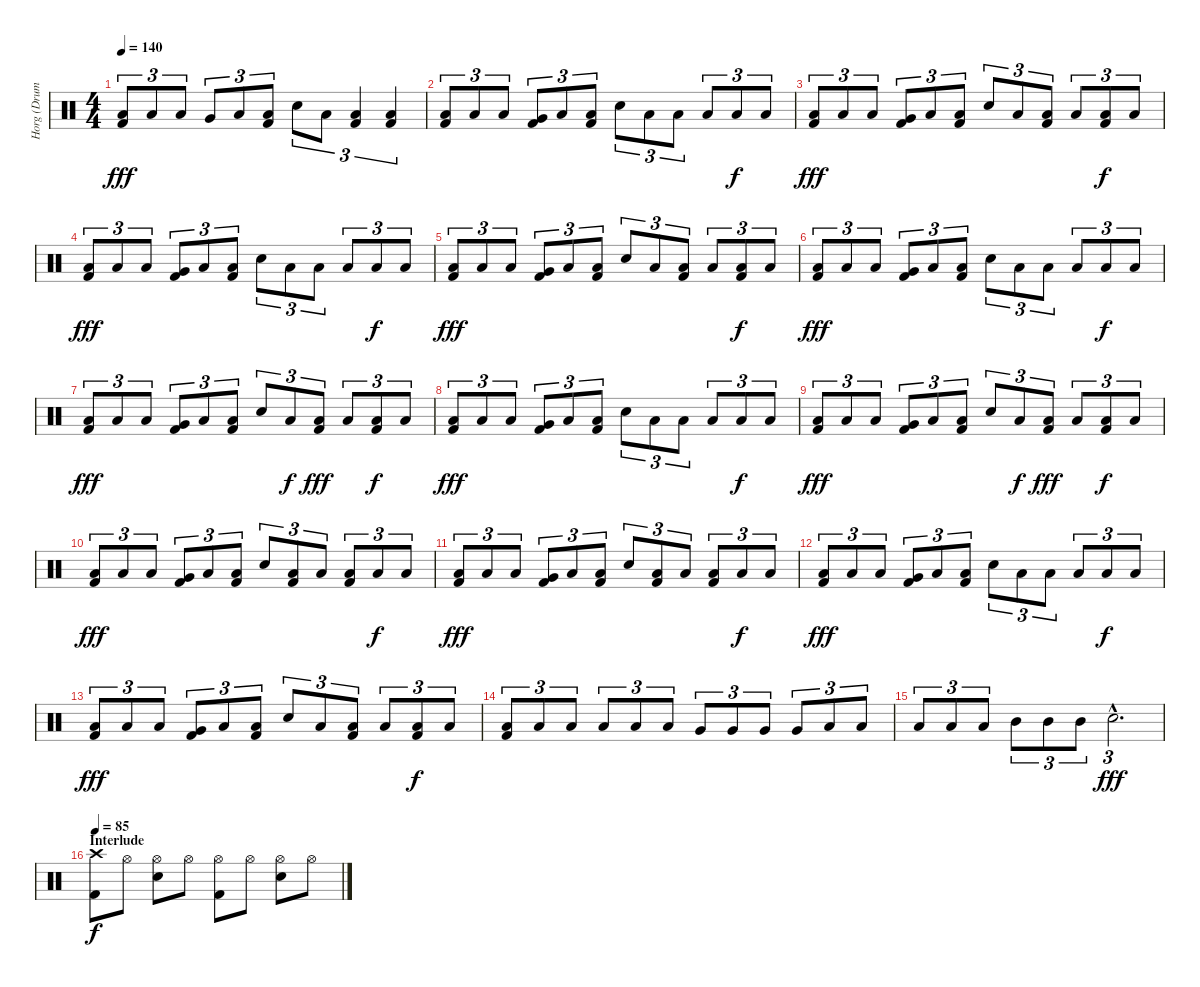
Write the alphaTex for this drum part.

\track ("Horg (Drums)" "Horg (Drum") {instrument percussion}
\staff {score}
\articulation defaults
\ts (4 4)
\tempo 140
\clef neutral
\ks c
("Low Floor Tom (hit)" "Kick (hit) 2").8{tu (3 2) dy fff} "Low Floor Tom (hit)".8{tu (3 2)} "Low Floor Tom (hit)".8{tu (3 2)} "Very Low Tom (hit)".8{tu (3 2)} "Low Floor Tom (hit)".8{tu (3 2)} ("Low Floor Tom (hit)" "Kick (hit) 2").8{tu (3 2)} "Electric Snare (hit)".8{tu (3 2)} "Low Floor Tom (hit)".8{tu (3 2)} ("Low Floor Tom (hit)" "Kick (hit) 2").4{tu (3 2)} ("Low Floor Tom (hit)" "Kick (hit) 2").4{tu (3 2)} |
("Low Floor Tom (hit)" "Kick (hit) 2").8{tu (3 2)} "Low Floor Tom (hit)".8{tu (3 2)} "Low Floor Tom (hit)".8{tu (3 2)} ("Very Low Tom (hit)" "Kick (hit) 2").8{tu (3 2)} "Low Floor Tom (hit)".8{tu (3 2)} ("Low Floor Tom (hit)" "Kick (hit) 2").8{tu (3 2)} "Electric Snare (hit)".8{tu (3 2)} "Low Floor Tom (hit)".8{tu (3 2)} "Low Floor Tom (hit)".8{tu (3 2)} "Low Floor Tom (hit)".8{tu (3 2)} "Low Floor Tom (hit)".8{tu (3 2) dy f} "Low Floor Tom (hit)".8{tu (3 2)} |
("Low Floor Tom (hit)" "Kick (hit) 2").8{tu (3 2) dy fff} "Low Floor Tom (hit)".8{tu (3 2)} "Low Floor Tom (hit)".8{tu (3 2)} ("Very Low Tom (hit)" "Kick (hit) 2").8{tu (3 2)} "Low Floor Tom (hit)".8{tu (3 2)} ("Low Floor Tom (hit)" "Kick (hit) 2").8{tu (3 2)} "Electric Snare (hit)".8{tu (3 2)} "Low Floor Tom (hit)".8{tu (3 2)} ("Low Floor Tom (hit)" "Kick (hit) 2").8{tu (3 2)} "Low Floor Tom (hit)".8{tu (3 2)} ("Low Floor Tom (hit)" "Kick (hit) 2").8{tu (3 2) dy f} "Low Floor Tom (hit)".8{tu (3 2)} |
("Low Floor Tom (hit)" "Kick (hit) 2").8{tu (3 2) dy fff} "Low Floor Tom (hit)".8{tu (3 2)} "Low Floor Tom (hit)".8{tu (3 2)} ("Very Low Tom (hit)" "Kick (hit) 2").8{tu (3 2)} "Low Floor Tom (hit)".8{tu (3 2)} ("Low Floor Tom (hit)" "Kick (hit) 2").8{tu (3 2)} "Electric Snare (hit)".8{tu (3 2)} "Low Floor Tom (hit)".8{tu (3 2)} "Low Floor Tom (hit)".8{tu (3 2)} "Low Floor Tom (hit)".8{tu (3 2)} "Low Floor Tom (hit)".8{tu (3 2) dy f} "Low Floor Tom (hit)".8{tu (3 2)} |
("Low Floor Tom (hit)" "Kick (hit) 2").8{tu (3 2) dy fff} "Low Floor Tom (hit)".8{tu (3 2)} "Low Floor Tom (hit)".8{tu (3 2)} ("Very Low Tom (hit)" "Kick (hit) 2").8{tu (3 2)} "Low Floor Tom (hit)".8{tu (3 2)} ("Low Floor Tom (hit)" "Kick (hit) 2").8{tu (3 2)} "Electric Snare (hit)".8{tu (3 2)} "Low Floor Tom (hit)".8{tu (3 2)} ("Low Floor Tom (hit)" "Kick (hit) 2").8{tu (3 2)} "Low Floor Tom (hit)".8{tu (3 2)} ("Low Floor Tom (hit)" "Kick (hit) 2").8{tu (3 2) dy f} "Low Floor Tom (hit)".8{tu (3 2)} |
("Low Floor Tom (hit)" "Kick (hit) 2").8{tu (3 2) dy fff} "Low Floor Tom (hit)".8{tu (3 2)} "Low Floor Tom (hit)".8{tu (3 2)} ("Very Low Tom (hit)" "Kick (hit) 2").8{tu (3 2)} "Low Floor Tom (hit)".8{tu (3 2)} ("Low Floor Tom (hit)" "Kick (hit) 2").8{tu (3 2)} "Electric Snare (hit)".8{tu (3 2)} "Low Floor Tom (hit)".8{tu (3 2)} "Low Floor Tom (hit)".8{tu (3 2)} "Low Floor Tom (hit)".8{tu (3 2)} "Low Floor Tom (hit)".8{tu (3 2) dy f} "Low Floor Tom (hit)".8{tu (3 2)} |
("Low Floor Tom (hit)" "Kick (hit) 2").8{tu (3 2) dy fff} "Low Floor Tom (hit)".8{tu (3 2)} "Low Floor Tom (hit)".8{tu (3 2)} ("Very Low Tom (hit)" "Kick (hit) 2").8{tu (3 2)} "Low Floor Tom (hit)".8{tu (3 2)} ("Low Floor Tom (hit)" "Kick (hit) 2").8{tu (3 2)} "Electric Snare (hit)".8{tu (3 2)} "Low Floor Tom (hit)".8{tu (3 2) dy f} ("Low Floor Tom (hit)" "Kick (hit) 2").8{tu (3 2) dy fff} "Low Floor Tom (hit)".8{tu (3 2)} ("Low Floor Tom (hit)" "Kick (hit) 2").8{tu (3 2) dy f} "Low Floor Tom (hit)".8{tu (3 2)} |
("Low Floor Tom (hit)" "Kick (hit) 2").8{tu (3 2) dy fff} "Low Floor Tom (hit)".8{tu (3 2)} "Low Floor Tom (hit)".8{tu (3 2)} ("Very Low Tom (hit)" "Kick (hit) 2").8{tu (3 2)} "Low Floor Tom (hit)".8{tu (3 2)} ("Low Floor Tom (hit)" "Kick (hit) 2").8{tu (3 2)} "Electric Snare (hit)".8{tu (3 2)} "Low Floor Tom (hit)".8{tu (3 2)} "Low Floor Tom (hit)".8{tu (3 2)} "Low Floor Tom (hit)".8{tu (3 2)} "Low Floor Tom (hit)".8{tu (3 2) dy f} "Low Floor Tom (hit)".8{tu (3 2)} |
("Low Floor Tom (hit)" "Kick (hit) 2").8{tu (3 2) dy fff} "Low Floor Tom (hit)".8{tu (3 2)} "Low Floor Tom (hit)".8{tu (3 2)} ("Very Low Tom (hit)" "Kick (hit) 2").8{tu (3 2)} "Low Floor Tom (hit)".8{tu (3 2)} ("Low Floor Tom (hit)" "Kick (hit) 2").8{tu (3 2)} "Electric Snare (hit)".8{tu (3 2)} "Low Floor Tom (hit)".8{tu (3 2) dy f} ("Low Floor Tom (hit)" "Kick (hit) 2").8{tu (3 2) dy fff} "Low Floor Tom (hit)".8{tu (3 2)} ("Low Floor Tom (hit)" "Kick (hit) 2").8{tu (3 2) dy f} "Low Floor Tom (hit)".8{tu (3 2)} |
("Low Floor Tom (hit)" "Kick (hit) 2").8{tu (3 2) dy fff} "Low Floor Tom (hit)".8{tu (3 2)} "Low Floor Tom (hit)".8{tu (3 2)} ("Very Low Tom (hit)" "Kick (hit) 2").8{tu (3 2)} "Low Floor Tom (hit)".8{tu (3 2)} ("Low Floor Tom (hit)" "Kick (hit) 2").8{tu (3 2)} "Electric Snare (hit)".8{tu (3 2)} ("Low Floor Tom (hit)" "Kick (hit) 2").8{tu (3 2)} "Low Floor Tom (hit)".8{tu (3 2)} ("Low Floor Tom (hit)" "Kick (hit) 2").8{tu (3 2)} "Low Floor Tom (hit)".8{tu (3 2) dy f} "Low Floor Tom (hit)".8{tu (3 2)} |
("Low Floor Tom (hit)" "Kick (hit) 2").8{tu (3 2) dy fff} "Low Floor Tom (hit)".8{tu (3 2)} "Low Floor Tom (hit)".8{tu (3 2)} ("Very Low Tom (hit)" "Kick (hit) 2").8{tu (3 2)} "Low Floor Tom (hit)".8{tu (3 2)} ("Low Floor Tom (hit)" "Kick (hit) 2").8{tu (3 2)} "Electric Snare (hit)".8{tu (3 2)} ("Low Floor Tom (hit)" "Kick (hit) 2").8{tu (3 2)} "Low Floor Tom (hit)".8{tu (3 2)} ("Low Floor Tom (hit)" "Kick (hit) 2").8{tu (3 2)} "Low Floor Tom (hit)".8{tu (3 2) dy f} "Low Floor Tom (hit)".8{tu (3 2)} |
("Low Floor Tom (hit)" "Kick (hit) 2").8{tu (3 2) dy fff} "Low Floor Tom (hit)".8{tu (3 2)} "Low Floor Tom (hit)".8{tu (3 2)} ("Very Low Tom (hit)" "Kick (hit) 2").8{tu (3 2)} "Low Floor Tom (hit)".8{tu (3 2)} ("Low Floor Tom (hit)" "Kick (hit) 2").8{tu (3 2)} "Electric Snare (hit)".8{tu (3 2)} "Low Floor Tom (hit)".8{tu (3 2)} "Low Floor Tom (hit)".8{tu (3 2)} "Low Floor Tom (hit)".8{tu (3 2)} "Low Floor Tom (hit)".8{tu (3 2) dy f} "Low Floor Tom (hit)".8{tu (3 2)} |
("Low Floor Tom (hit)" "Kick (hit) 2").8{tu (3 2) dy fff} "Low Floor Tom (hit)".8{tu (3 2)} "Low Floor Tom (hit)".8{tu (3 2)} ("Very Low Tom (hit)" "Kick (hit) 2").8{tu (3 2)} "Low Floor Tom (hit)".8{tu (3 2)} ("Low Floor Tom (hit)" "Kick (hit) 2").8{tu (3 2)} "Electric Snare (hit)".8{tu (3 2)} "Low Floor Tom (hit)".8{tu (3 2)} ("Low Floor Tom (hit)" "Kick (hit) 2").8{tu (3 2)} "Low Floor Tom (hit)".8{tu (3 2)} ("Low Floor Tom (hit)" "Kick (hit) 2").8{tu (3 2) dy f} "Low Floor Tom (hit)".8{tu (3 2)} |
("Low Floor Tom (hit)" "Kick (hit) 2").8{tu (3 2)} "Low Floor Tom (hit)".8{tu (3 2)} "Low Floor Tom (hit)".8{tu (3 2)} "Low Floor Tom (hit)".8{tu (3 2)} "Low Floor Tom (hit)".8{tu (3 2)} "Low Floor Tom (hit)".8{tu (3 2)} "Very Low Tom (hit)".8{tu (3 2)} "Very Low Tom (hit)".8{tu (3 2)} "Very Low Tom (hit)".8{tu (3 2)} "Very Low Tom (hit)".8{tu (3 2)} "Low Tom (hit)".8{tu (3 2)} "Low Tom (hit)".8{tu (3 2)} |
"Low Tom (hit)".8{tu (3 2)} "Low Tom (hit)".8{tu (3 2)} "Low Tom (hit)".8{tu (3 2)} "Mid Tom (hit)".8{tu (3 2)} "Mid Tom (hit)".8{tu (3 2)} "Mid Tom (hit)".8{tu (3 2)} "Electric Snare (hit)"{hac}.2{d tu (3 2) dy fff} |
\section ("" "Interlude")
\tempo 85
("Crash high (hit)" "Kick (hit) 2").8{dy f} "Hi-Hat (open)".8 ("Hi-Hat (open)" "Electric Snare (hit)").8 "Hi-Hat (open)".8 ("Hi-Hat (open)" "Kick (hit) 2").8 "Hi-Hat (open)".8 ("Hi-Hat (open)" "Electric Snare (hit)").8 "Hi-Hat (open)".8
